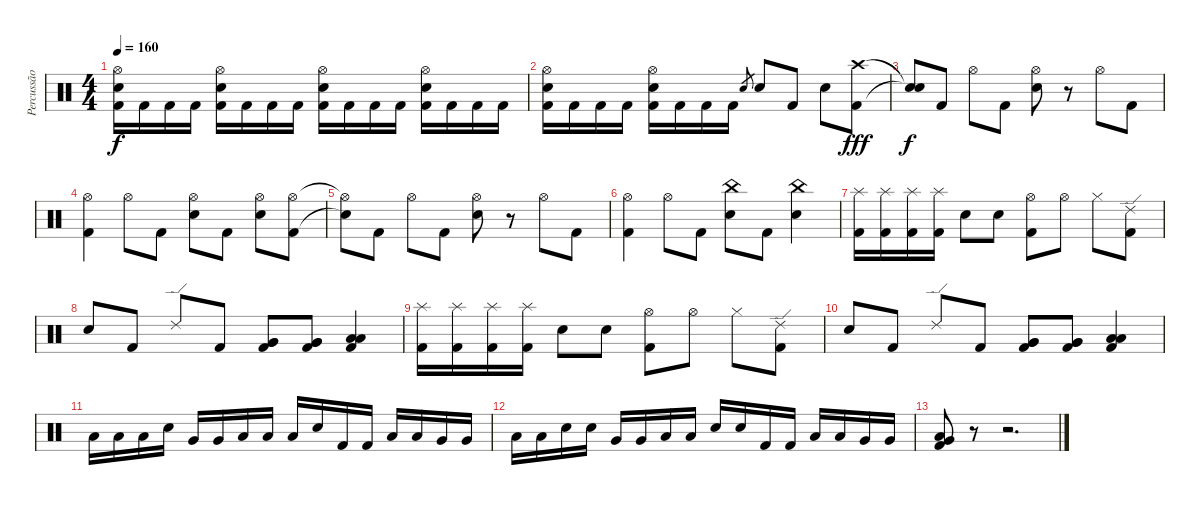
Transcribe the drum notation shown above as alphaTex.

\track ("Percussão" "Percussão") {instrument percussion}
\staff {score}
\articulation defaults
\ts (4 4)
\tempo 160
\clef neutral
\ks c
("Hi-Hat (open)" "Electric Snare (hit)" "Kick (hit) 2").16{dy f} "Kick (hit) 2".16 "Kick (hit) 2".16 "Kick (hit) 2".16 ("Hi-Hat (open)" "Electric Snare (hit)" "Kick (hit) 2").16 "Kick (hit) 2".16 "Kick (hit) 2".16 "Kick (hit) 2".16 ("Hi-Hat (open)" "Electric Snare (hit)" "Kick (hit) 2").16 "Kick (hit) 2".16 "Kick (hit) 2".16 "Kick (hit) 2".16 ("Hi-Hat (open)" "Electric Snare (hit)" "Kick (hit) 2").16 "Kick (hit) 2".16 "Kick (hit) 2".16 "Kick (hit) 2".16 |
("Hi-Hat (open)" "Electric Snare (hit)" "Kick (hit) 2").16 "Kick (hit) 2".16 "Kick (hit) 2".16 "Kick (hit) 2".16 ("Hi-Hat (open)" "Electric Snare (hit)" "Kick (hit) 2").16 "Kick (hit) 2".16 "Kick (hit) 2".16 "Kick (hit) 2".16 "Electric Snare (hit)".8{gr} "Electric Snare (hit)".8 "Kick (hit) 2".8 "Electric Snare (hit)".8 ("Crash high (hit)" "Kick (hit) 2").8{dy fff} |
("Snare (hit)"{t} "Snare (hit)"{t}).8{dy f} "Kick (hit) 2".8 "Hi-Hat (open)".8 "Kick (hit) 2".8 ("Hi-Hat (open)" "Electric Snare (hit)").8 r.8 "Hi-Hat (open)".8 "Kick (hit) 2".8 |
("Hi-Hat (open)" "Kick (hit) 2").4 "Hi-Hat (open)".8 "Kick (hit) 2".8 ("Hi-Hat (open)" "Electric Snare (hit)").8 "Kick (hit) 2".8 ("Hi-Hat (open)" "Electric Snare (hit)").8 ("Hi-Hat (open)" "Kick (hit) 2").8 |
("Hi-Hat (open)"{t} "Snare (hit)"{t}).8 "Kick (hit) 2".8 "Hi-Hat (open)".8 "Kick (hit) 2".8 ("Hi-Hat (open)" "Electric Snare (hit)").8 r.8 "Hi-Hat (open)".8 "Kick (hit) 2".8 |
("Hi-Hat (open)" "Kick (hit) 2").4 "Hi-Hat (open)".8 "Kick (hit) 2".8 ("China (hit)" "Electric Snare (hit)").8 "Kick (hit) 2".8 ("China (hit)" "Electric Snare (hit)").4 |
("Splash (hit)" "Kick (hit) 2").16 ("Splash (hit)" "Kick (hit) 2").16 ("Splash (hit)" "Kick (hit) 2").16 ("Splash (hit)" "Kick (hit) 2").16 "Electric Snare (hit)".8 "Electric Snare (hit)".8 ("Hi-Hat (open)" "Kick (hit) 2").8 "Hi-Hat (open)".8 "Hi-Hat (closed)".8 ("Ride (edge) 2" "Kick (hit) 2").8 |
"Electric Snare (hit)".8 "Kick (hit) 2".8 "Ride (edge) 2".8 "Kick (hit) 2".8 ("Very Low Tom (hit)" "Very Low Tom (hit)" "Kick (hit) 2").8 ("Very Low Tom (hit)" "Very Low Tom (hit)" "Kick (hit) 2").8 ("Low Floor Tom (hit)" "Low Floor Tom (hit)" "Kick (hit) 2").4 |
("Splash (hit)" "Kick (hit) 2").16 ("Splash (hit)" "Kick (hit) 2").16 ("Splash (hit)" "Kick (hit) 2").16 ("Splash (hit)" "Kick (hit) 2").16 "Electric Snare (hit)".8 "Electric Snare (hit)".8 ("Hi-Hat (open)" "Kick (hit) 2").8 "Hi-Hat (open)".8 "Hi-Hat (closed)".8 ("Ride (edge) 2" "Kick (hit) 2").8 |
"Electric Snare (hit)".8 "Kick (hit) 2".8 "Ride (edge) 2".8 "Kick (hit) 2".8 ("Very Low Tom (hit)" "Very Low Tom (hit)" "Kick (hit) 2").8 ("Very Low Tom (hit)" "Very Low Tom (hit)" "Kick (hit) 2").8 ("Low Floor Tom (hit)" "Low Floor Tom (hit)" "Kick (hit) 2").4 |
"Low Tom (hit)".16 "Low Tom (hit)".16 "Low Tom (hit)".16 "Electric Snare (hit)".16 "Very Low Tom (hit)".16 "Very Low Tom (hit)".16 "Low Floor Tom (hit)".16 "Low Floor Tom (hit)".16 "Low Floor Tom (hit)".16 "Electric Snare (hit)".16 "Kick (hit) 2".16 "Kick (hit) 2".16 "Low Floor Tom (hit)".16 "Low Floor Tom (hit)".16 "Very Low Tom (hit)".16 "Very Low Tom (hit)".16 |
"Low Tom (hit)".16 "Low Tom (hit)".16 "Electric Snare (hit)".16 "Electric Snare (hit)".16 "Very Low Tom (hit)".16 "Very Low Tom (hit)".16 "Low Floor Tom (hit)".16 "Low Floor Tom (hit)".16 "Electric Snare (hit)".16 "Electric Snare (hit)".16 "Kick (hit) 2".16 "Kick (hit) 2".16 "Low Floor Tom (hit)".16 "Low Floor Tom (hit)".16 "Very Low Tom (hit)".16 "Very Low Tom (hit)".16 |
("Very Low Tom (hit)" "Low Floor Tom (hit)" "Kick (hit) 2").8 r.8 r.2{d}
